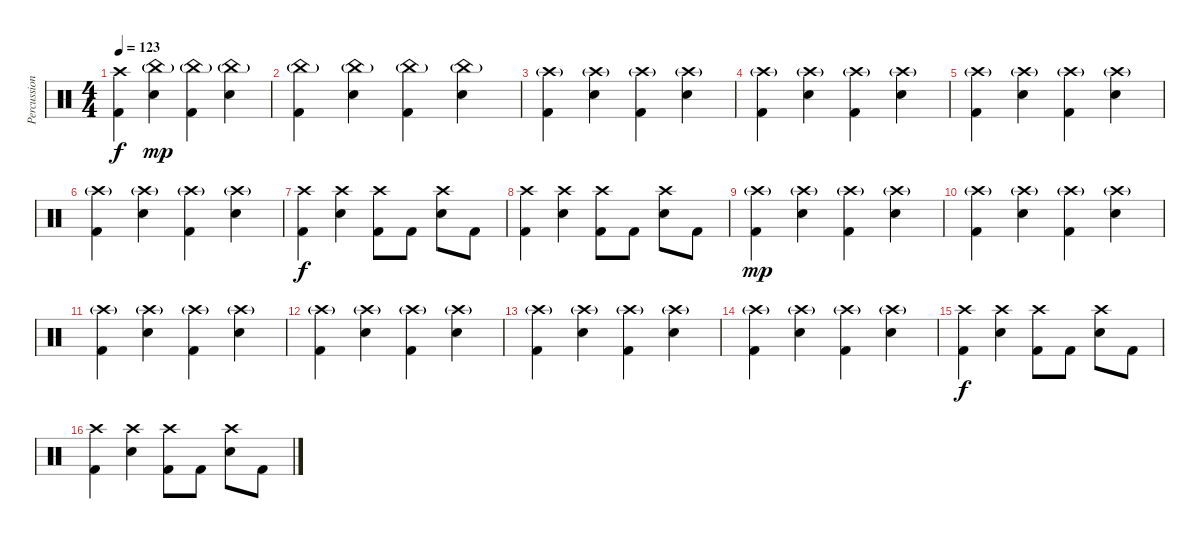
\track ("Percussions" "Percussion") {instrument percussion}
\staff {score}
\articulation defaults
\ts (4 4)
\tempo 123
\clef neutral
\ks c
("Crash high (hit)" "Kick (hit) 2").4{dy f} ("China (hit)"{g} "Snare (hit) 2").4{dy mp} ("China (hit)"{g} "Kick (hit) 2").4 ("China (hit)"{g} "Snare (hit) 2").4 |
("China (hit)"{g} "Kick (hit) 2").4 ("China (hit)"{g} "Snare (hit) 2").4 ("China (hit)"{g} "Kick (hit) 2").4 ("China (hit)"{g} "Snare (hit) 2").4 |
("Crash high (hit)"{g} "Kick (hit) 2").4 ("Crash high (hit)"{g} "Snare (hit) 2").4 ("Crash high (hit)"{g} "Kick (hit) 2").4 ("Crash high (hit)"{g} "Snare (hit) 2").4 |
("Crash high (hit)"{g} "Kick (hit) 2").4 ("Crash high (hit)"{g} "Snare (hit) 2").4 ("Crash high (hit)"{g} "Kick (hit) 2").4 ("Crash high (hit)"{g} "Snare (hit) 2").4 |
("Crash high (hit)"{g} "Kick (hit) 2").4 ("Crash high (hit)"{g} "Snare (hit) 2").4 ("Crash high (hit)"{g} "Kick (hit) 2").4 ("Crash high (hit)"{g} "Snare (hit) 2").4 |
("Crash high (hit)"{g} "Kick (hit) 2").4 ("Crash high (hit)"{g} "Snare (hit) 2").4 ("Crash high (hit)"{g} "Kick (hit) 2").4 ("Crash high (hit)"{g} "Snare (hit) 2").4 |
("Crash high (hit)" "Kick (hit) 2").4{dy f} ("Crash high (hit)" "Snare (hit) 2").4 ("Crash high (hit)" "Kick (hit) 2").8 "Kick (hit) 2".8 ("Crash high (hit)" "Snare (hit) 2").8 "Kick (hit) 2".8 |
("Crash high (hit)" "Kick (hit) 2").4 ("Crash high (hit)" "Snare (hit) 2").4 ("Crash high (hit)" "Kick (hit) 2").8 "Kick (hit) 2".8 ("Crash high (hit)" "Snare (hit) 2").8 "Kick (hit) 2".8 |
("Crash high (hit)"{g} "Kick (hit) 2").4{dy mp} ("Crash high (hit)"{g} "Snare (hit) 2").4 ("Crash high (hit)"{g} "Kick (hit) 2").4 ("Crash high (hit)"{g} "Snare (hit) 2").4 |
("Crash high (hit)"{g} "Kick (hit) 2").4 ("Crash high (hit)"{g} "Snare (hit) 2").4 ("Crash high (hit)"{g} "Kick (hit) 2").4 ("Crash high (hit)"{g} "Snare (hit) 2").4 |
("Crash high (hit)"{g} "Kick (hit) 2").4 ("Crash high (hit)"{g} "Snare (hit) 2").4 ("Crash high (hit)"{g} "Kick (hit) 2").4 ("Crash high (hit)"{g} "Snare (hit) 2").4 |
("Crash high (hit)"{g} "Kick (hit) 2").4 ("Crash high (hit)"{g} "Snare (hit) 2").4 ("Crash high (hit)"{g} "Kick (hit) 2").4 ("Crash high (hit)"{g} "Snare (hit) 2").4 |
("Crash high (hit)"{g} "Kick (hit) 2").4 ("Crash high (hit)"{g} "Snare (hit) 2").4 ("Crash high (hit)"{g} "Kick (hit) 2").4 ("Crash high (hit)"{g} "Snare (hit) 2").4 |
("Crash high (hit)"{g} "Kick (hit) 2").4 ("Crash high (hit)"{g} "Snare (hit) 2").4 ("Crash high (hit)"{g} "Kick (hit) 2").4 ("Crash high (hit)"{g} "Snare (hit) 2").4 |
("Crash high (hit)" "Kick (hit) 2").4{dy f} ("Crash high (hit)" "Snare (hit) 2").4 ("Crash high (hit)" "Kick (hit) 2").8 "Kick (hit) 2".8 ("Crash high (hit)" "Snare (hit) 2").8 "Kick (hit) 2".8 |
("Crash high (hit)" "Kick (hit) 2").4 ("Crash high (hit)" "Snare (hit) 2").4 ("Crash high (hit)" "Kick (hit) 2").8 "Kick (hit) 2".8 ("Crash high (hit)" "Snare (hit) 2").8 "Kick (hit) 2".8
